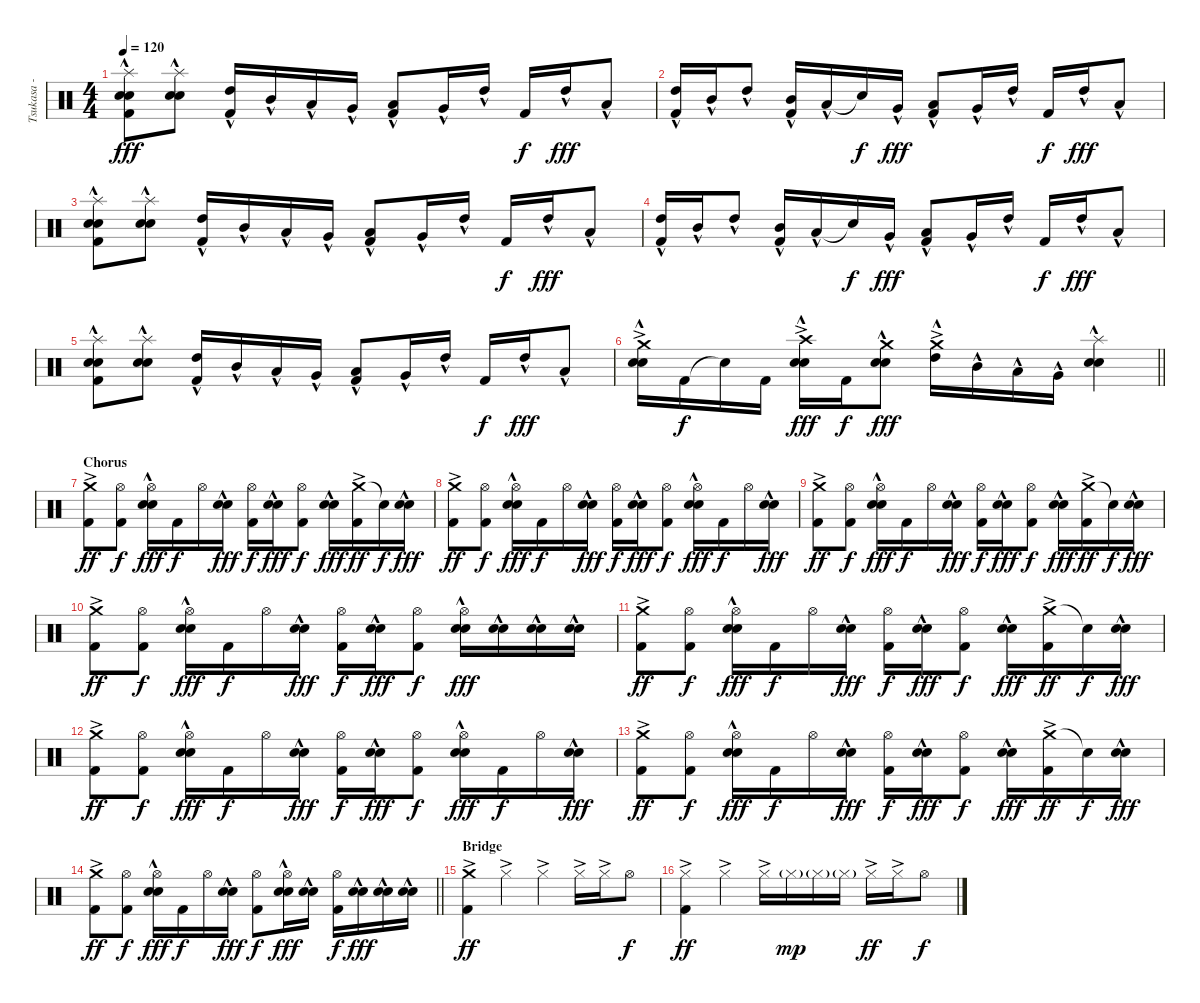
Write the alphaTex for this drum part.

\track ("Tsukasa - Drums" "Tsukasa - ") {instrument percussion}
\staff {score}
\articulation defaults
\ts (4 4)
\tempo 120
\clef neutral
\ks c
("Splash (hit)"{hac} "Electric Snare (hit)"{hac} "Snare (hit) 2"{hac} "Kick (hit) 2").8{dy fff} ("Splash (hit)"{hac} "Electric Snare (hit)" "Snare (hit) 2").8 ("High Tom (hit)"{hac} "Kick (hit) 2").16 "Mid Tom (hit)"{hac}.16 "Low Tom (hit)"{hac}.16 "Very Low Tom (hit)"{hac}.16 ("Low Tom (hit)"{hac} "Kick (hit) 2").8 "Very Low Tom (hit)"{hac}.16 "High Tom (hit)"{hac}.16 "Kick (hit) 2".16{dy f} "High Tom (hit)"{hac}.16{dy fff} "Low Tom (hit)"{hac}.8 |
("High Tom (hit)"{hac} "Kick (hit) 2").16 "Mid Tom (hit)"{hac}.16 "High Tom (hit)"{hac}.8 ("Mid Tom (hit)"{hac} "Kick (hit) 2").16 "Low Tom (hit)"{hac}.16 "Snare (hit)"{t}.16{dy f} "Very Low Tom (hit)"{hac}.16{dy fff} ("Low Tom (hit)"{hac} "Kick (hit) 2").8 "Very Low Tom (hit)"{hac}.16 "High Tom (hit)"{hac}.16 "Kick (hit) 2".16{dy f} "High Tom (hit)"{hac}.16{dy fff} "Low Tom (hit)"{hac}.8 |
("Splash (hit)"{hac} "Electric Snare (hit)"{hac} "Snare (hit) 2"{hac} "Kick (hit) 2").8 ("Splash (hit)"{hac} "Electric Snare (hit)" "Snare (hit) 2").8 ("High Tom (hit)"{hac} "Kick (hit) 2").16 "Mid Tom (hit)"{hac}.16 "Low Tom (hit)"{hac}.16 "Very Low Tom (hit)"{hac}.16 ("Low Tom (hit)"{hac} "Kick (hit) 2").8 "Very Low Tom (hit)"{hac}.16 "High Tom (hit)"{hac}.16 "Kick (hit) 2".16{dy f} "High Tom (hit)"{hac}.16{dy fff} "Low Tom (hit)"{hac}.8 |
("High Tom (hit)"{hac} "Kick (hit) 2").16 "Mid Tom (hit)"{hac}.16 "High Tom (hit)"{hac}.8 ("Mid Tom (hit)"{hac} "Kick (hit) 2").16 "Low Tom (hit)"{hac}.16 "Snare (hit)"{t}.16{dy f} "Very Low Tom (hit)"{hac}.16{dy fff} ("Low Tom (hit)"{hac} "Kick (hit) 2").8 "Very Low Tom (hit)"{hac}.16 "High Tom (hit)"{hac}.16 "Kick (hit) 2".16{dy f} "High Tom (hit)"{hac}.16{dy fff} "Low Tom (hit)"{hac}.8 |
("Splash (hit)"{hac} "Electric Snare (hit)"{hac} "Snare (hit) 2"{hac} "Kick (hit) 2").8 ("Splash (hit)"{hac} "Electric Snare (hit)" "Snare (hit) 2").8 ("High Tom (hit)"{hac} "Kick (hit) 2").16 "Mid Tom (hit)"{hac}.16 "Low Tom (hit)"{hac}.16 "Very Low Tom (hit)"{hac}.16 ("Low Tom (hit)"{hac} "Kick (hit) 2").8 "Very Low Tom (hit)"{hac}.16 "High Tom (hit)"{hac}.16 "Kick (hit) 2".16{dy f} "High Tom (hit)"{hac}.16{dy fff} "Low Tom (hit)"{hac}.8 |
\barLineRight lightlight
("Crash medium (hit)"{ac} "Electric Snare (hit)"{hac} "Snare (hit) 2"{hac}).16 "Kick (hit) 2".16{dy f} "Snare (hit)"{t}.16 "Kick (hit) 2".16 ("Crash high (hit)"{ac} "Electric Snare (hit)"{hac} "Snare (hit) 2"{hac}).16{dy fff} "Kick (hit) 2".16{dy f} ("Crash medium (hit)" "Electric Snare (hit)"{hac} "Snare (hit) 2"{hac}).8{dy fff} ("Crash medium (hit)"{ac} "High Tom (hit)"{hac}).16 "Mid Tom (hit)"{hac}.16 "Low Tom (hit)"{hac}.16 "Very Low Tom (hit)"{hac}.16 ("Splash (hit)"{hac} "Electric Snare (hit)"{hac} "Snare (hit) 2"{hac}).4 |
\section ("" "Chorus")
("Crash medium (hit)"{ac} "Kick (hit) 2").8{dy ff} ("Hi-Hat (open)" "Kick (hit) 2").8{dy f} ("Hi-Hat (open)" "Electric Snare (hit)"{hac} "Snare (hit) 2"{hac}).16{dy fff} "Kick (hit) 2".16{dy f} "Hi-Hat (open)".16 ("Electric Snare (hit)"{hac} "Snare (hit) 2"{hac}).16{dy fff} ("Hi-Hat (open)" "Kick (hit) 2").16{dy f} ("Electric Snare (hit)"{hac} "Snare (hit) 2"{hac}).16{dy fff} ("Hi-Hat (open)" "Kick (hit) 2").8{dy f} ("Electric Snare (hit)"{hac} "Snare (hit) 2"{hac}).16{dy fff} ("Crash medium (hit)"{ac} "Kick (hit) 2").16{dy ff} "Snare (hit)"{t}.16{dy f} ("Electric Snare (hit)"{hac} "Snare (hit) 2"{hac}).16{dy fff} |
("Crash medium (hit)"{ac} "Kick (hit) 2").8{dy ff} ("Hi-Hat (open)" "Kick (hit) 2").8{dy f} ("Hi-Hat (open)" "Electric Snare (hit)"{hac} "Snare (hit) 2"{hac}).16{dy fff} "Kick (hit) 2".16{dy f} "Hi-Hat (open)".16 ("Electric Snare (hit)"{hac} "Snare (hit) 2"{hac}).16{dy fff} ("Hi-Hat (open)" "Kick (hit) 2").16{dy f} ("Electric Snare (hit)"{hac} "Snare (hit) 2"{hac}).16{dy fff} ("Hi-Hat (open)" "Kick (hit) 2").8{dy f} ("Hi-Hat (open)" "Electric Snare (hit)"{hac} "Snare (hit) 2"{hac}).16{dy fff} "Kick (hit) 2".16{dy f} "Hi-Hat (open)".16 ("Electric Snare (hit)"{hac} "Snare (hit) 2"{hac}).16{dy fff} |
("Crash medium (hit)"{ac} "Kick (hit) 2").8{dy ff} ("Hi-Hat (open)" "Kick (hit) 2").8{dy f} ("Hi-Hat (open)" "Electric Snare (hit)"{hac} "Snare (hit) 2"{hac}).16{dy fff} "Kick (hit) 2".16{dy f} "Hi-Hat (open)".16 ("Electric Snare (hit)"{hac} "Snare (hit) 2"{hac}).16{dy fff} ("Hi-Hat (open)" "Kick (hit) 2").16{dy f} ("Electric Snare (hit)"{hac} "Snare (hit) 2"{hac}).16{dy fff} ("Hi-Hat (open)" "Kick (hit) 2").8{dy f} ("Electric Snare (hit)"{hac} "Snare (hit) 2"{hac}).16{dy fff} ("Crash medium (hit)"{ac} "Kick (hit) 2").16{dy ff} "Snare (hit)"{t}.16{dy f} ("Electric Snare (hit)"{hac} "Snare (hit) 2"{hac}).16{dy fff} |
("Crash medium (hit)"{ac} "Kick (hit) 2").8{dy ff} ("Hi-Hat (open)" "Kick (hit) 2").8{dy f} ("Hi-Hat (open)" "Electric Snare (hit)"{hac} "Snare (hit) 2"{hac}).16{dy fff} "Kick (hit) 2".16{dy f} "Hi-Hat (open)".16 ("Electric Snare (hit)"{hac} "Snare (hit) 2"{hac}).16{dy fff} ("Hi-Hat (open)" "Kick (hit) 2").16{dy f} ("Electric Snare (hit)"{hac} "Snare (hit) 2"{hac}).16{dy fff} ("Hi-Hat (open)" "Kick (hit) 2").8{dy f} ("Hi-Hat (open)" "Electric Snare (hit)"{hac} "Snare (hit) 2"{hac}).16{dy fff} ("Electric Snare (hit)"{hac} "Snare (hit) 2"{hac}).16 ("Electric Snare (hit)"{hac} "Snare (hit) 2"{hac}).16 ("Electric Snare (hit)"{hac} "Snare (hit) 2"{hac}).16 |
("Crash medium (hit)"{ac} "Kick (hit) 2").8{dy ff} ("Hi-Hat (open)" "Kick (hit) 2").8{dy f} ("Hi-Hat (open)" "Electric Snare (hit)"{hac} "Snare (hit) 2"{hac}).16{dy fff} "Kick (hit) 2".16{dy f} "Hi-Hat (open)".16 ("Electric Snare (hit)"{hac} "Snare (hit) 2"{hac}).16{dy fff} ("Hi-Hat (open)" "Kick (hit) 2").16{dy f} ("Electric Snare (hit)"{hac} "Snare (hit) 2"{hac}).16{dy fff} ("Hi-Hat (open)" "Kick (hit) 2").8{dy f} ("Electric Snare (hit)"{hac} "Snare (hit) 2"{hac}).16{dy fff} ("Crash medium (hit)"{ac} "Kick (hit) 2").16{dy ff} "Snare (hit)"{t}.16{dy f} ("Electric Snare (hit)"{hac} "Snare (hit) 2"{hac}).16{dy fff} |
("Crash medium (hit)"{ac} "Kick (hit) 2").8{dy ff} ("Hi-Hat (open)" "Kick (hit) 2").8{dy f} ("Hi-Hat (open)" "Electric Snare (hit)"{hac} "Snare (hit) 2"{hac}).16{dy fff} "Kick (hit) 2".16{dy f} "Hi-Hat (open)".16 ("Electric Snare (hit)"{hac} "Snare (hit) 2"{hac}).16{dy fff} ("Hi-Hat (open)" "Kick (hit) 2").16{dy f} ("Electric Snare (hit)"{hac} "Snare (hit) 2"{hac}).16{dy fff} ("Hi-Hat (open)" "Kick (hit) 2").8{dy f} ("Hi-Hat (open)" "Electric Snare (hit)"{hac} "Snare (hit) 2"{hac}).16{dy fff} "Kick (hit) 2".16{dy f} "Hi-Hat (open)".16 ("Electric Snare (hit)"{hac} "Snare (hit) 2"{hac}).16{dy fff} |
("Crash medium (hit)"{ac} "Kick (hit) 2").8{dy ff} ("Hi-Hat (open)" "Kick (hit) 2").8{dy f} ("Hi-Hat (open)" "Electric Snare (hit)"{hac} "Snare (hit) 2"{hac}).16{dy fff} "Kick (hit) 2".16{dy f} "Hi-Hat (open)".16 ("Electric Snare (hit)"{hac} "Snare (hit) 2"{hac}).16{dy fff} ("Hi-Hat (open)" "Kick (hit) 2").16{dy f} ("Electric Snare (hit)"{hac} "Snare (hit) 2"{hac}).16{dy fff} ("Hi-Hat (open)" "Kick (hit) 2").8{dy f} ("Electric Snare (hit)"{hac} "Snare (hit) 2"{hac}).16{dy fff} ("Crash medium (hit)"{ac} "Kick (hit) 2").16{dy ff} "Snare (hit)"{t}.16{dy f} ("Electric Snare (hit)"{hac} "Snare (hit) 2"{hac}).16{dy fff} |
\barLineRight lightlight
("Crash medium (hit)"{ac} "Kick (hit) 2").8{dy ff} ("Hi-Hat (open)" "Kick (hit) 2").8{dy f} ("Hi-Hat (open)" "Electric Snare (hit)"{hac} "Snare (hit) 2"{hac}).16{dy fff} "Kick (hit) 2".16{dy f} "Hi-Hat (open)".16 ("Electric Snare (hit)"{hac} "Snare (hit) 2"{hac}).16{dy fff} ("Hi-Hat (open)" "Kick (hit) 2").8{dy f} ("Hi-Hat (open)" "Electric Snare (hit)"{hac} "Snare (hit) 2"{hac}).16{dy fff} ("Electric Snare (hit)"{hac} "Snare (hit) 2"{hac}).16 ("Hi-Hat (open)" "Kick (hit) 2").16{dy f} ("Electric Snare (hit)"{hac} "Snare (hit) 2"{hac}).16{dy fff} ("Electric Snare (hit)"{hac} "Snare (hit) 2"{hac}).16 ("Electric Snare (hit)"{hac} "Snare (hit) 2"{hac}).16 |
\section ("" "Bridge")
("Crash medium (hit)"{ac} "Kick (hit) 2").4{dy ff} "Hi-Hat (closed)"{ac}.4 "Hi-Hat (closed)"{ac}.4 "Hi-Hat (closed)"{ac}.16 "Hi-Hat (closed)"{ac}.16 "Hi-Hat (open)".8{dy f} |
("Hi-Hat (closed)"{ac} "Kick (hit) 2").4{dy ff} "Hi-Hat (closed)"{ac}.4 "Hi-Hat (closed)"{ac}.16 "Hi-Hat (closed)"{g}.16{dy mp} "Hi-Hat (closed)"{g}.16 "Hi-Hat (closed)"{g}.16 "Hi-Hat (closed)"{ac}.16{dy ff} "Hi-Hat (closed)"{ac}.16 "Hi-Hat (open)".8{dy f}
